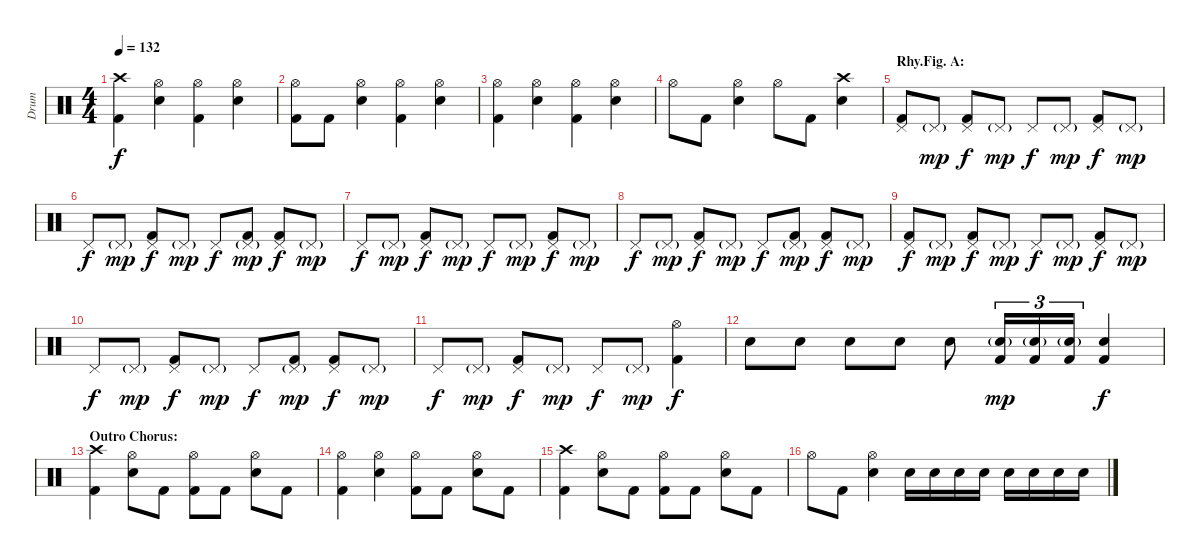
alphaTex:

\track ("Drum" "Drum") {instrument percussion}
\staff {score}
\articulation defaults
\ts (4 4)
\tempo 132
\clef neutral
\ks c
("Crash high (hit)" "Kick (hit) 2").4{dy f} ("Hi-Hat (open)" "Snare (hit) 2").4 ("Hi-Hat (open)" "Kick (hit) 2").4 ("Hi-Hat (open)" "Snare (hit) 2").4 |
("Hi-Hat (open)" "Kick (hit) 2").8 "Kick (hit) 2".8 ("Hi-Hat (open)" "Snare (hit) 2").4 ("Hi-Hat (open)" "Kick (hit) 2").4 ("Hi-Hat (open)" "Snare (hit) 2").4 |
("Hi-Hat (open)" "Kick (hit) 2").4 ("Hi-Hat (open)" "Snare (hit) 2").4 ("Hi-Hat (open)" "Kick (hit) 2").4 ("Hi-Hat (open)" "Snare (hit) 2").4 |
"Hi-Hat (open)".8 "Kick (hit) 2".8 ("Hi-Hat (open)" "Snare (hit) 2").4 "Hi-Hat (open)".8 "Kick (hit) 2".8 ("Crash high (hit)" "Snare (hit) 2").4 |
\section ("" "Rhy.Fig. A:")
("Pedal Hi-Hat (hit)" "Kick (hit) 2").8 "Pedal Hi-Hat (hit)"{g}.8{dy mp} ("Pedal Hi-Hat (hit)" "Kick (hit) 2").8{dy f} "Pedal Hi-Hat (hit)"{g}.8{dy mp} "Pedal Hi-Hat (hit)".8{dy f} "Pedal Hi-Hat (hit)"{g}.8{dy mp} ("Pedal Hi-Hat (hit)" "Kick (hit) 2").8{dy f} "Pedal Hi-Hat (hit)"{g}.8{dy mp} |
"Pedal Hi-Hat (hit)".8{dy f} "Pedal Hi-Hat (hit)"{g}.8{dy mp} ("Pedal Hi-Hat (hit)" "Kick (hit) 2").8{dy f} "Pedal Hi-Hat (hit)"{g}.8{dy mp} "Pedal Hi-Hat (hit)".8{dy f} ("Pedal Hi-Hat (hit)"{g} "Kick (hit) 2").8{dy mp} ("Pedal Hi-Hat (hit)" "Kick (hit) 2").8{dy f} "Pedal Hi-Hat (hit)"{g}.8{dy mp} |
"Pedal Hi-Hat (hit)".8{dy f} "Pedal Hi-Hat (hit)"{g}.8{dy mp} ("Pedal Hi-Hat (hit)" "Kick (hit) 2").8{dy f} "Pedal Hi-Hat (hit)"{g}.8{dy mp} "Pedal Hi-Hat (hit)".8{dy f} "Pedal Hi-Hat (hit)"{g}.8{dy mp} ("Pedal Hi-Hat (hit)" "Kick (hit) 2").8{dy f} "Pedal Hi-Hat (hit)"{g}.8{dy mp} |
"Pedal Hi-Hat (hit)".8{dy f} "Pedal Hi-Hat (hit)"{g}.8{dy mp} ("Pedal Hi-Hat (hit)" "Kick (hit) 2").8{dy f} "Pedal Hi-Hat (hit)"{g}.8{dy mp} "Pedal Hi-Hat (hit)".8{dy f} ("Pedal Hi-Hat (hit)"{g} "Kick (hit) 2").8{dy mp} ("Pedal Hi-Hat (hit)" "Kick (hit) 2").8{dy f} "Pedal Hi-Hat (hit)"{g}.8{dy mp} |
("Pedal Hi-Hat (hit)" "Kick (hit) 2").8{dy f} "Pedal Hi-Hat (hit)"{g}.8{dy mp} ("Pedal Hi-Hat (hit)" "Kick (hit) 2").8{dy f} "Pedal Hi-Hat (hit)"{g}.8{dy mp} "Pedal Hi-Hat (hit)".8{dy f} "Pedal Hi-Hat (hit)"{g}.8{dy mp} ("Pedal Hi-Hat (hit)" "Kick (hit) 2").8{dy f} "Pedal Hi-Hat (hit)"{g}.8{dy mp} |
"Pedal Hi-Hat (hit)".8{dy f} "Pedal Hi-Hat (hit)"{g}.8{dy mp} ("Pedal Hi-Hat (hit)" "Kick (hit) 2").8{dy f} "Pedal Hi-Hat (hit)"{g}.8{dy mp} "Pedal Hi-Hat (hit)".8{dy f} ("Pedal Hi-Hat (hit)"{g} "Kick (hit) 2").8{dy mp} ("Pedal Hi-Hat (hit)" "Kick (hit) 2").8{dy f} "Pedal Hi-Hat (hit)"{g}.8{dy mp} |
"Pedal Hi-Hat (hit)".8{dy f} "Pedal Hi-Hat (hit)"{g}.8{dy mp} ("Pedal Hi-Hat (hit)" "Kick (hit) 2").8{dy f} "Pedal Hi-Hat (hit)"{g}.8{dy mp} "Pedal Hi-Hat (hit)".8{dy f} "Pedal Hi-Hat (hit)"{g}.8{dy mp} ("Hi-Hat (open)" "Kick (hit) 2").4{dy f} |
"Snare (hit) 2".8 "Snare (hit) 2".8 "Snare (hit) 2".8 "Snare (hit) 2".8 "Snare (hit) 2".8 ("Snare (hit) 2"{g} "Kick (hit) 2").16{tu (3 2) dy mp} ("Snare (hit) 2"{g} "Kick (hit) 2").16{tu (3 2)} ("Snare (hit) 2"{g} "Kick (hit) 2").16{tu (3 2)} ("Snare (hit) 2" "Kick (hit) 2").4{dy f} |
\section ("" "Outro Chorus:")
("Crash high (hit)" "Kick (hit) 2").4 ("Hi-Hat (open)" "Snare (hit) 2").8 "Kick (hit) 2".8 ("Hi-Hat (open)" "Kick (hit) 2").8 "Kick (hit) 2".8 ("Hi-Hat (open)" "Snare (hit) 2").8 "Kick (hit) 2".8 |
("Hi-Hat (open)" "Kick (hit) 2").4 ("Hi-Hat (open)" "Snare (hit) 2").4 ("Hi-Hat (open)" "Kick (hit) 2").8 "Kick (hit) 2".8 ("Hi-Hat (open)" "Snare (hit) 2").8 "Kick (hit) 2".8 |
("Crash high (hit)" "Kick (hit) 2").4 ("Hi-Hat (open)" "Snare (hit) 2").8 "Kick (hit) 2".8 ("Hi-Hat (open)" "Kick (hit) 2").8 "Kick (hit) 2".8 ("Hi-Hat (open)" "Snare (hit) 2").8 "Kick (hit) 2".8 |
"Hi-Hat (open)".8 "Kick (hit) 2".8 ("Hi-Hat (open)" "Snare (hit) 2").4 "Snare (hit) 2".16 "Snare (hit) 2".16 "Snare (hit) 2".16 "Snare (hit) 2".16 "Snare (hit) 2".16 "Snare (hit) 2".16 "Snare (hit) 2".16 "Snare (hit) 2".16
